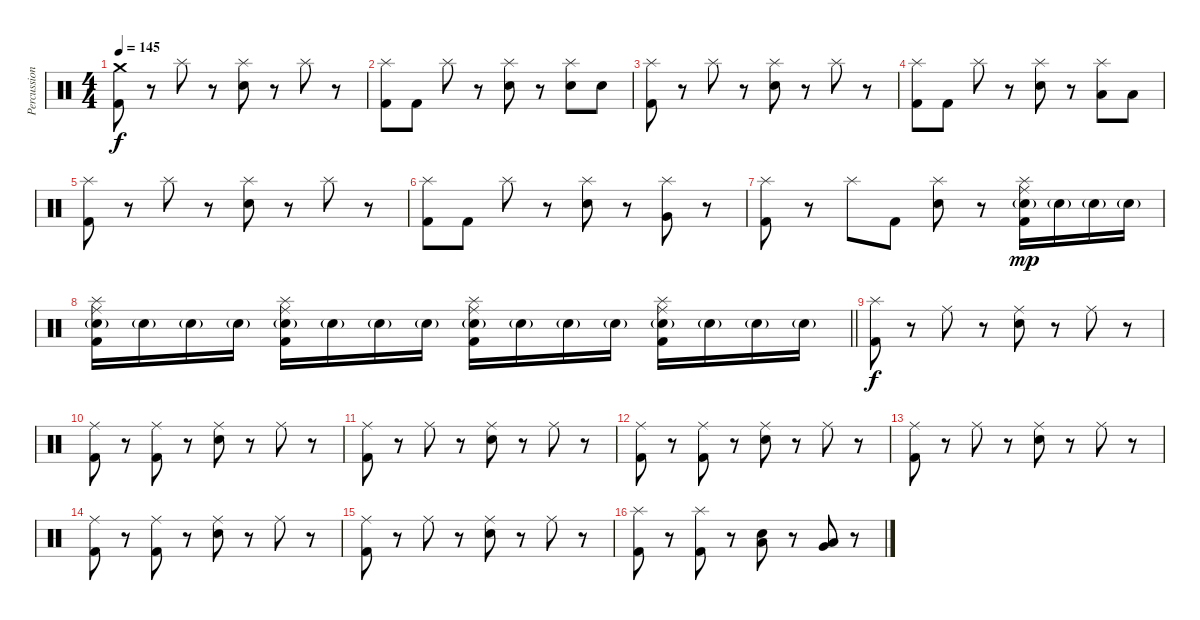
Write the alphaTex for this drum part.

\track ("Percussion" "Percussion") {instrument percussion}
\staff {score}
\articulation defaults
\ts (4 4)
\tempo 145
\clef neutral
\ks c
("Crash medium (hit)" "Kick (hit) 2").8{dy f} r.8 "Splash (hit)".8 r.8 ("Splash (hit)" "Electric Snare (hit)").8 r.8 "Splash (hit)".8 r.8 |
("Splash (hit)" "Kick (hit) 2").8 "Kick (hit) 2".8 "Splash (hit)".8 r.8 ("Splash (hit)" "Electric Snare (hit)").8 r.8 ("Splash (hit)" "Electric Snare (hit)").8 "Electric Snare (hit)".8 |
("Splash (hit)" "Kick (hit) 2").8 r.8 "Splash (hit)".8 r.8 ("Splash (hit)" "Electric Snare (hit)").8 r.8 "Splash (hit)".8 r.8 |
("Splash (hit)" "Kick (hit) 2").8 "Kick (hit) 2".8 "Splash (hit)".8 r.8 ("Splash (hit)" "Electric Snare (hit)").8 r.8 ("Splash (hit)" "Low Tom (hit)").8 "Low Tom (hit)".8 |
("Splash (hit)" "Kick (hit) 2").8 r.8 "Splash (hit)".8 r.8 ("Splash (hit)" "Electric Snare (hit)").8 r.8 "Splash (hit)".8 r.8 |
("Splash (hit)" "Kick (hit) 2").8 "Kick (hit) 2".8 "Splash (hit)".8 r.8 ("Splash (hit)" "Electric Snare (hit)").8 r.8 ("Splash (hit)" "Very Low Tom (hit)").8 r.8 |
("Splash (hit)" "Kick (hit) 2").8 r.8 "Splash (hit)".8 "Kick (hit) 2".8 ("Splash (hit)" "Electric Snare (hit)").8 r.8 ("Splash (hit)" "Ride (middle)" "Electric Snare (hit)"{g} "Kick (hit) 2").16{dy mp} "Electric Snare (hit)"{g}.16 "Electric Snare (hit)"{g}.16 "Electric Snare (hit)"{g}.16 |
\barLineRight lightlight
("Splash (hit)" "Ride (middle)" "Electric Snare (hit)"{g} "Kick (hit) 2").16 "Electric Snare (hit)"{g}.16 "Electric Snare (hit)"{g}.16 "Electric Snare (hit)"{g}.16 ("Splash (hit)" "Ride (middle)" "Electric Snare (hit)"{g} "Kick (hit) 2").16 "Electric Snare (hit)"{g}.16 "Electric Snare (hit)"{g}.16 "Electric Snare (hit)"{g}.16 ("Splash (hit)" "Ride (middle)" "Electric Snare (hit)"{g} "Kick (hit) 2").16 "Electric Snare (hit)"{g}.16 "Electric Snare (hit)"{g}.16 "Electric Snare (hit)"{g}.16 ("Splash (hit)" "Ride (middle)" "Electric Snare (hit)"{g} "Kick (hit) 2").16 "Electric Snare (hit)"{g}.16 "Electric Snare (hit)"{g}.16 "Electric Snare (hit)"{g}.16 |
\section ("" "")
("Splash (hit)" "Kick (hit) 2").8{dy f} r.8 "Ride (middle)".8 r.8 ("Ride (middle)" "Electric Snare (hit)").8 r.8 "Ride (middle)".8 r.8 |
("Ride (middle)" "Kick (hit) 2").8 r.8 ("Ride (middle)" "Kick (hit) 2").8 r.8 ("Ride (middle)" "Electric Snare (hit)").8 r.8 "Ride (middle)".8 r.8 |
("Ride (middle)" "Kick (hit) 2").8 r.8 "Ride (middle)".8 r.8 ("Ride (middle)" "Electric Snare (hit)").8 r.8 "Ride (middle)".8 r.8 |
("Ride (middle)" "Kick (hit) 2").8 r.8 ("Ride (middle)" "Kick (hit) 2").8 r.8 ("Ride (middle)" "Electric Snare (hit)").8 r.8 "Ride (middle)".8 r.8 |
("Ride (middle)" "Kick (hit) 2").8 r.8 "Ride (middle)".8 r.8 ("Ride (middle)" "Electric Snare (hit)").8 r.8 "Ride (middle)".8 r.8 |
("Ride (middle)" "Kick (hit) 2").8 r.8 ("Ride (middle)" "Kick (hit) 2").8 r.8 ("Ride (middle)" "Electric Snare (hit)").8 r.8 "Ride (middle)".8 r.8 |
("Ride (middle)" "Kick (hit) 2").8 r.8 "Ride (middle)".8 r.8 ("Ride (middle)" "Electric Snare (hit)").8 r.8 "Ride (middle)".8 r.8 |
("Splash (hit)" "Kick (hit) 2").8 r.8 ("Splash (hit)" "Kick (hit) 2").8 r.8 ("Low Tom (hit)" "Electric Snare (hit)").8 r.8 ("Very Low Tom (hit)" "Low Tom (hit)").8 r.8
